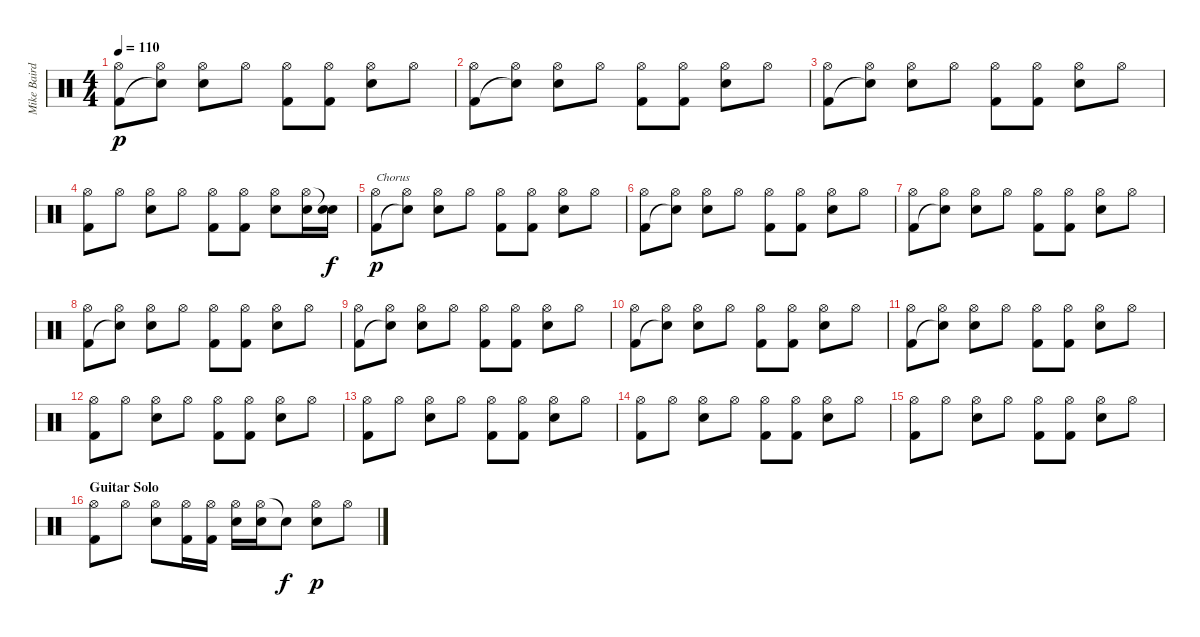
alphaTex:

\track ("Mike Baird [drums]" "Mike Baird") {instrument percussion}
\staff {score}
\articulation defaults
\ts (4 4)
\tempo 110
\clef neutral
\ks c
("Hi-Hat (open)" "Kick (hit) 2").8{dy p} ("Hi-Hat (open)" "Snare (hit)"{t}).8 ("Hi-Hat (open)" "Electric Snare (hit)").8 "Hi-Hat (open)".8 ("Hi-Hat (open)" "Kick (hit) 2").8 ("Hi-Hat (open)" "Kick (hit) 2").8 ("Hi-Hat (open)" "Electric Snare (hit)").8 "Hi-Hat (open)".8 |
("Hi-Hat (open)" "Kick (hit) 2").8 ("Hi-Hat (open)" "Snare (hit)"{t}).8 ("Hi-Hat (open)" "Electric Snare (hit)").8 "Hi-Hat (open)".8 ("Hi-Hat (open)" "Kick (hit) 2").8 ("Hi-Hat (open)" "Kick (hit) 2").8 ("Hi-Hat (open)" "Electric Snare (hit)").8 "Hi-Hat (open)".8 |
("Hi-Hat (open)" "Kick (hit) 2").8 ("Hi-Hat (open)" "Snare (hit)"{t}).8 ("Hi-Hat (open)" "Electric Snare (hit)").8 "Hi-Hat (open)".8 ("Hi-Hat (open)" "Kick (hit) 2").8 ("Hi-Hat (open)" "Kick (hit) 2").8 ("Hi-Hat (open)" "Electric Snare (hit)").8 "Hi-Hat (open)".8 |
("Hi-Hat (open)" "Kick (hit) 2").8 "Hi-Hat (open)".8 ("Hi-Hat (open)" "Electric Snare (hit)").8 "Hi-Hat (open)".8 ("Hi-Hat (open)" "Kick (hit) 2").8 ("Hi-Hat (open)" "Kick (hit) 2").8 ("Hi-Hat (open)" "Electric Snare (hit)").8 ("Hi-Hat (open)" "Electric Snare (hit)").16 ("Snare (hit)"{t} "Electric Snare (hit)").16{dy f} |
("Hi-Hat (open)" "Kick (hit) 2").8{txt "Chorus" dy p} ("Hi-Hat (open)" "Snare (hit)"{t}).8 ("Hi-Hat (open)" "Electric Snare (hit)").8 "Hi-Hat (open)".8 ("Hi-Hat (open)" "Kick (hit) 2").8 ("Hi-Hat (open)" "Kick (hit) 2").8 ("Hi-Hat (open)" "Electric Snare (hit)").8 "Hi-Hat (open)".8 |
("Hi-Hat (open)" "Kick (hit) 2").8 ("Hi-Hat (open)" "Snare (hit)"{t}).8 ("Hi-Hat (open)" "Electric Snare (hit)").8 "Hi-Hat (open)".8 ("Hi-Hat (open)" "Kick (hit) 2").8 ("Hi-Hat (open)" "Kick (hit) 2").8 ("Hi-Hat (open)" "Electric Snare (hit)").8 "Hi-Hat (open)".8 |
("Hi-Hat (open)" "Kick (hit) 2").8 ("Hi-Hat (open)" "Snare (hit)"{t}).8 ("Hi-Hat (open)" "Electric Snare (hit)").8 "Hi-Hat (open)".8 ("Hi-Hat (open)" "Kick (hit) 2").8 ("Hi-Hat (open)" "Kick (hit) 2").8 ("Hi-Hat (open)" "Electric Snare (hit)").8 "Hi-Hat (open)".8 |
("Hi-Hat (open)" "Kick (hit) 2").8 ("Hi-Hat (open)" "Snare (hit)"{t}).8 ("Hi-Hat (open)" "Electric Snare (hit)").8 "Hi-Hat (open)".8 ("Hi-Hat (open)" "Kick (hit) 2").8 ("Hi-Hat (open)" "Kick (hit) 2").8 ("Hi-Hat (open)" "Electric Snare (hit)").8 "Hi-Hat (open)".8 |
("Hi-Hat (open)" "Kick (hit) 2").8 ("Hi-Hat (open)" "Snare (hit)"{t}).8 ("Hi-Hat (open)" "Electric Snare (hit)").8 "Hi-Hat (open)".8 ("Hi-Hat (open)" "Kick (hit) 2").8 ("Hi-Hat (open)" "Kick (hit) 2").8 ("Hi-Hat (open)" "Electric Snare (hit)").8 "Hi-Hat (open)".8 |
("Hi-Hat (open)" "Kick (hit) 2").8 ("Hi-Hat (open)" "Snare (hit)"{t}).8 ("Hi-Hat (open)" "Electric Snare (hit)").8 "Hi-Hat (open)".8 ("Hi-Hat (open)" "Kick (hit) 2").8 ("Hi-Hat (open)" "Kick (hit) 2").8 ("Hi-Hat (open)" "Electric Snare (hit)").8 "Hi-Hat (open)".8 |
("Hi-Hat (open)" "Kick (hit) 2").8 ("Hi-Hat (open)" "Snare (hit)"{t}).8 ("Hi-Hat (open)" "Electric Snare (hit)").8 "Hi-Hat (open)".8 ("Hi-Hat (open)" "Kick (hit) 2").8 ("Hi-Hat (open)" "Kick (hit) 2").8 ("Hi-Hat (open)" "Electric Snare (hit)").8 "Hi-Hat (open)".8 |
("Hi-Hat (open)" "Kick (hit) 2").8 "Hi-Hat (open)".8 ("Hi-Hat (open)" "Electric Snare (hit)").8 "Hi-Hat (open)".8 ("Hi-Hat (open)" "Kick (hit) 2").8 ("Hi-Hat (open)" "Kick (hit) 2").8 ("Hi-Hat (open)" "Electric Snare (hit)").8 "Hi-Hat (open)".8 |
("Hi-Hat (open)" "Kick (hit) 2").8 "Hi-Hat (open)".8 ("Hi-Hat (open)" "Electric Snare (hit)").8 "Hi-Hat (open)".8 ("Hi-Hat (open)" "Kick (hit) 2").8 ("Hi-Hat (open)" "Kick (hit) 2").8 ("Hi-Hat (open)" "Electric Snare (hit)").8 "Hi-Hat (open)".8 |
("Hi-Hat (open)" "Kick (hit) 2").8 "Hi-Hat (open)".8 ("Hi-Hat (open)" "Electric Snare (hit)").8 "Hi-Hat (open)".8 ("Hi-Hat (open)" "Kick (hit) 2").8 ("Hi-Hat (open)" "Kick (hit) 2").8 ("Hi-Hat (open)" "Electric Snare (hit)").8 "Hi-Hat (open)".8 |
("Hi-Hat (open)" "Kick (hit) 2").8 "Hi-Hat (open)".8 ("Hi-Hat (open)" "Electric Snare (hit)").8 "Hi-Hat (open)".8 ("Hi-Hat (open)" "Kick (hit) 2").8 ("Hi-Hat (open)" "Kick (hit) 2").8 ("Hi-Hat (open)" "Electric Snare (hit)").8 "Hi-Hat (open)".8 |
\section ("" "Guitar Solo")
("Hi-Hat (open)" "Kick (hit) 2").8 "Hi-Hat (open)".8 ("Hi-Hat (open)" "Electric Snare (hit)").8 ("Hi-Hat (open)" "Kick (hit) 2").16 ("Hi-Hat (open)" "Kick (hit) 2").16 ("Hi-Hat (open)" "Electric Snare (hit)").16 ("Hi-Hat (open)" "Electric Snare (hit)").16 "Snare (hit)"{t}.8{dy f} ("Hi-Hat (open)" "Electric Snare (hit)").8{dy p} "Hi-Hat (open)".8
